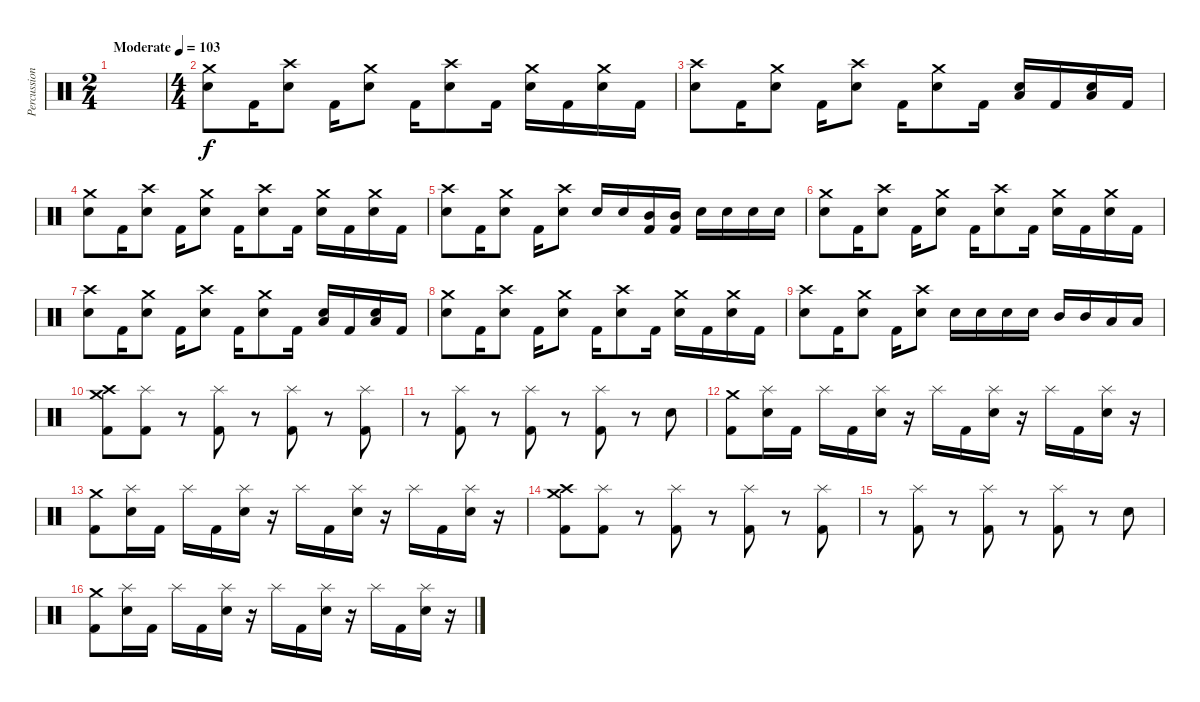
\track ("Percussion" "Percussion") {instrument percussion}
\staff {score}
\articulation defaults
\ts (2 4)
\tempo (103 "Moderate")
\clef neutral
\ks c
|
\ts (4 4)
("Crash medium (hit)" "Electric Snare (hit)").8 "Kick (hit) 2".16 ("Crash high (hit)" "Electric Snare (hit)").8 "Kick (hit) 2".16 ("Crash medium (hit)" "Electric Snare (hit)").8 "Kick (hit) 2".16 ("Crash high (hit)" "Electric Snare (hit)").8 "Kick (hit) 2".16 ("Crash medium (hit)" "Electric Snare (hit)").16 "Kick (hit) 2".16 ("Crash medium (hit)" "Electric Snare (hit)").16 "Kick (hit) 2".16 |
("Crash high (hit)" "Electric Snare (hit)").8 "Kick (hit) 2".16 ("Crash medium (hit)" "Electric Snare (hit)").8 "Kick (hit) 2".16 ("Crash high (hit)" "Electric Snare (hit)").8 "Kick (hit) 2".16 ("Crash medium (hit)" "Electric Snare (hit)").8 "Kick (hit) 2".16 ("Low Tom (hit)" "Electric Snare (hit)").16 "Kick (hit) 2".16 ("Low Tom (hit)" "Electric Snare (hit)").16 "Kick (hit) 2".16 |
("Crash medium (hit)" "Electric Snare (hit)").8 "Kick (hit) 2".16 ("Crash high (hit)" "Electric Snare (hit)").8 "Kick (hit) 2".16 ("Crash medium (hit)" "Electric Snare (hit)").8 "Kick (hit) 2".16 ("Crash high (hit)" "Electric Snare (hit)").8 "Kick (hit) 2".16 ("Crash medium (hit)" "Electric Snare (hit)").16 "Kick (hit) 2".16 ("Crash medium (hit)" "Electric Snare (hit)").16 "Kick (hit) 2".16 |
("Crash high (hit)" "Electric Snare (hit)").8 "Kick (hit) 2".16 ("Crash medium (hit)" "Electric Snare (hit)").8 "Kick (hit) 2".16 ("Crash high (hit)" "Electric Snare (hit)").8 "Electric Snare (hit)".16 "Electric Snare (hit)".16 ("Mid Tom (hit)" "Kick (hit) 2").16 ("Mid Tom (hit)" "Kick (hit) 2").16 "Electric Snare (hit)".16 "Electric Snare (hit)".16 "Electric Snare (hit)".16 "Electric Snare (hit)".16 |
("Crash medium (hit)" "Electric Snare (hit)").8 "Kick (hit) 2".16 ("Crash high (hit)" "Electric Snare (hit)").8 "Kick (hit) 2".16 ("Crash medium (hit)" "Electric Snare (hit)").8 "Kick (hit) 2".16 ("Crash high (hit)" "Electric Snare (hit)").8 "Kick (hit) 2".16 ("Crash medium (hit)" "Electric Snare (hit)").16 "Kick (hit) 2".16 ("Crash medium (hit)" "Electric Snare (hit)").16 "Kick (hit) 2".16 |
("Crash high (hit)" "Electric Snare (hit)").8 "Kick (hit) 2".16 ("Crash medium (hit)" "Electric Snare (hit)").8 "Kick (hit) 2".16 ("Crash high (hit)" "Electric Snare (hit)").8 "Kick (hit) 2".16 ("Crash medium (hit)" "Electric Snare (hit)").8 "Kick (hit) 2".16 ("Low Tom (hit)" "Electric Snare (hit)").16 "Kick (hit) 2".16 ("Low Tom (hit)" "Electric Snare (hit)").16 "Kick (hit) 2".16 |
("Crash medium (hit)" "Electric Snare (hit)").8 "Kick (hit) 2".16 ("Crash high (hit)" "Electric Snare (hit)").8 "Kick (hit) 2".16 ("Crash medium (hit)" "Electric Snare (hit)").8 "Kick (hit) 2".16 ("Crash high (hit)" "Electric Snare (hit)").8 "Kick (hit) 2".16 ("Crash medium (hit)" "Electric Snare (hit)").16 "Kick (hit) 2".16 ("Crash medium (hit)" "Electric Snare (hit)").16 "Kick (hit) 2".16 |
("Crash high (hit)" "Electric Snare (hit)").8 "Kick (hit) 2".16 ("Crash medium (hit)" "Electric Snare (hit)").8 "Kick (hit) 2".16 ("Crash high (hit)" "Electric Snare (hit)").8 "Electric Snare (hit)".16 "Electric Snare (hit)".16 "Electric Snare (hit)".16 "Electric Snare (hit)".16 "Mid Tom (hit)".16 "Mid Tom (hit)".16 "Low Tom (hit)".16 "Low Tom (hit)".16 |
("Crash high (hit)" "Crash medium (hit)" "Kick (hit) 2").8 ("Splash (hit)" "Kick (hit) 2").8 r.8 ("Splash (hit)" "Kick (hit) 2").8 r.8 ("Splash (hit)" "Kick (hit) 2").8 r.8 ("Splash (hit)" "Kick (hit) 2").8 |
r.8 ("Splash (hit)" "Kick (hit) 2").8 r.8 ("Splash (hit)" "Kick (hit) 2").8 r.8 ("Splash (hit)" "Kick (hit) 2").8 r.8 "Electric Snare (hit)".8 |
("Crash medium (hit)" "Kick (hit) 2").8 ("Splash (hit)" "Electric Snare (hit)").16 "Kick (hit) 2".16 "Splash (hit)".16 "Kick (hit) 2".16 ("Splash (hit)" "Electric Snare (hit)").16 r.16 "Splash (hit)".16 "Kick (hit) 2".16 ("Splash (hit)" "Electric Snare (hit)").16 r.16 "Splash (hit)".16 "Kick (hit) 2".16 ("Splash (hit)" "Electric Snare (hit)").16 r.16 |
("Crash medium (hit)" "Kick (hit) 2").8 ("Splash (hit)" "Electric Snare (hit)").16 "Kick (hit) 2".16 "Splash (hit)".16 "Kick (hit) 2".16 ("Splash (hit)" "Electric Snare (hit)").16 r.16 "Splash (hit)".16 "Kick (hit) 2".16 ("Splash (hit)" "Electric Snare (hit)").16 r.16 "Splash (hit)".16 "Kick (hit) 2".16 ("Splash (hit)" "Electric Snare (hit)").16 r.16 |
("Crash high (hit)" "Crash medium (hit)" "Kick (hit) 2").8 ("Splash (hit)" "Kick (hit) 2").8 r.8 ("Splash (hit)" "Kick (hit) 2").8 r.8 ("Splash (hit)" "Kick (hit) 2").8 r.8 ("Splash (hit)" "Kick (hit) 2").8 |
r.8 ("Splash (hit)" "Kick (hit) 2").8 r.8 ("Splash (hit)" "Kick (hit) 2").8 r.8 ("Splash (hit)" "Kick (hit) 2").8 r.8 "Electric Snare (hit)".8 |
("Crash medium (hit)" "Kick (hit) 2").8 ("Splash (hit)" "Electric Snare (hit)").16 "Kick (hit) 2".16 "Splash (hit)".16 "Kick (hit) 2".16 ("Splash (hit)" "Electric Snare (hit)").16 r.16 "Splash (hit)".16 "Kick (hit) 2".16 ("Splash (hit)" "Electric Snare (hit)").16 r.16 "Splash (hit)".16 "Kick (hit) 2".16 ("Splash (hit)" "Electric Snare (hit)").16 r.16
